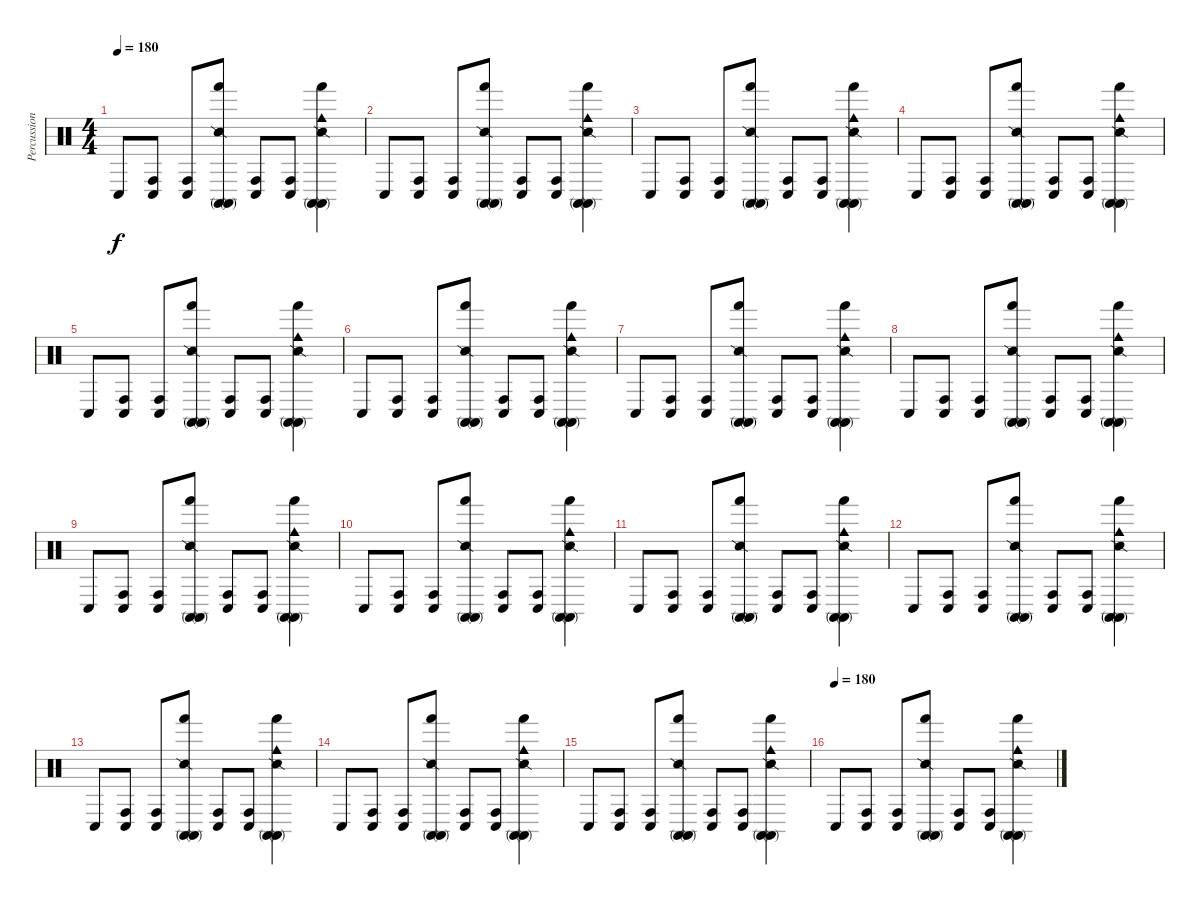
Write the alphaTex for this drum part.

\track ("Percussion" "Percussion") {instrument percussion}
\staff {score}
\articulation defaults
\ts (4 4)
\tempo 180
\clef neutral
\ks c "Conga low (hit)".8{dy f}
("Conga high (hit)" "Conga low (hit)").8 ("Conga high (hit)" "Conga low (hit)").8 ("Snare (side stick) 2" "Hand (hit)" "Conga high (mute)" "Conga high (mute)").8 ("Conga high (hit)" "Conga low (hit)").8 ("Conga high (hit)" "Conga low (hit)").8 ("Snare (side stick) 2" "Hand (hit)" "Cowbell medium (hit)" "Conga high (mute)" "Conga high (mute)").4 |
"Conga low (hit)".8 ("Conga high (hit)" "Conga low (hit)").8 ("Conga high (hit)" "Conga low (hit)").8 ("Snare (side stick) 2" "Hand (hit)" "Conga high (mute)" "Conga high (mute)").8 ("Conga high (hit)" "Conga low (hit)").8 ("Conga high (hit)" "Conga low (hit)").8 ("Snare (side stick) 2" "Hand (hit)" "Cowbell medium (hit)" "Conga high (mute)" "Conga high (mute)").4 |
"Conga low (hit)".8 ("Conga high (hit)" "Conga low (hit)").8 ("Conga high (hit)" "Conga low (hit)").8 ("Snare (side stick) 2" "Hand (hit)" "Conga high (mute)" "Conga high (mute)").8 ("Conga high (hit)" "Conga low (hit)").8 ("Conga high (hit)" "Conga low (hit)").8 ("Snare (side stick) 2" "Hand (hit)" "Cowbell medium (hit)" "Conga high (mute)" "Conga high (mute)").4 |
"Conga low (hit)".8 ("Conga high (hit)" "Conga low (hit)").8 ("Conga high (hit)" "Conga low (hit)").8 ("Snare (side stick) 2" "Hand (hit)" "Conga high (mute)" "Conga high (mute)").8 ("Conga high (hit)" "Conga low (hit)").8 ("Conga high (hit)" "Conga low (hit)").8 ("Snare (side stick) 2" "Hand (hit)" "Cowbell medium (hit)" "Conga high (mute)" "Conga high (mute)").4 |
"Conga low (hit)".8 ("Conga high (hit)" "Conga low (hit)").8 ("Conga high (hit)" "Conga low (hit)").8 ("Snare (side stick) 2" "Hand (hit)" "Conga high (mute)" "Conga high (mute)").8 ("Conga high (hit)" "Conga low (hit)").8 ("Conga high (hit)" "Conga low (hit)").8 ("Snare (side stick) 2" "Hand (hit)" "Cowbell medium (hit)" "Conga high (mute)" "Conga high (mute)").4 |
"Conga low (hit)".8 ("Conga high (hit)" "Conga low (hit)").8 ("Conga high (hit)" "Conga low (hit)").8 ("Snare (side stick) 2" "Hand (hit)" "Conga high (mute)" "Conga high (mute)").8 ("Conga high (hit)" "Conga low (hit)").8 ("Conga high (hit)" "Conga low (hit)").8 ("Snare (side stick) 2" "Hand (hit)" "Cowbell medium (hit)" "Conga high (mute)" "Conga high (mute)").4 |
"Conga low (hit)".8 ("Conga high (hit)" "Conga low (hit)").8 ("Conga high (hit)" "Conga low (hit)").8 ("Snare (side stick) 2" "Hand (hit)" "Conga high (mute)" "Conga high (mute)").8 ("Conga high (hit)" "Conga low (hit)").8 ("Conga high (hit)" "Conga low (hit)").8 ("Snare (side stick) 2" "Hand (hit)" "Cowbell medium (hit)" "Conga high (mute)" "Conga high (mute)").4 |
"Conga low (hit)".8 ("Conga high (hit)" "Conga low (hit)").8 ("Conga high (hit)" "Conga low (hit)").8 ("Snare (side stick) 2" "Hand (hit)" "Conga high (mute)" "Conga high (mute)").8 ("Conga high (hit)" "Conga low (hit)").8 ("Conga high (hit)" "Conga low (hit)").8 ("Snare (side stick) 2" "Hand (hit)" "Cowbell medium (hit)" "Conga high (mute)" "Conga high (mute)").4 |
"Conga low (hit)".8 ("Conga high (hit)" "Conga low (hit)").8 ("Conga high (hit)" "Conga low (hit)").8 ("Snare (side stick) 2" "Hand (hit)" "Conga high (mute)" "Conga high (mute)").8 ("Conga high (hit)" "Conga low (hit)").8 ("Conga high (hit)" "Conga low (hit)").8 ("Snare (side stick) 2" "Hand (hit)" "Cowbell medium (hit)" "Conga high (mute)" "Conga high (mute)").4 |
"Conga low (hit)".8 ("Conga high (hit)" "Conga low (hit)").8 ("Conga high (hit)" "Conga low (hit)").8 ("Snare (side stick) 2" "Hand (hit)" "Conga high (mute)" "Conga high (mute)").8 ("Conga high (hit)" "Conga low (hit)").8 ("Conga high (hit)" "Conga low (hit)").8 ("Snare (side stick) 2" "Hand (hit)" "Cowbell medium (hit)" "Conga high (mute)" "Conga high (mute)").4 |
"Conga low (hit)".8 ("Conga high (hit)" "Conga low (hit)").8 ("Conga high (hit)" "Conga low (hit)").8 ("Snare (side stick) 2" "Hand (hit)" "Conga high (mute)" "Conga high (mute)").8 ("Conga high (hit)" "Conga low (hit)").8 ("Conga high (hit)" "Conga low (hit)").8 ("Snare (side stick) 2" "Hand (hit)" "Cowbell medium (hit)" "Conga high (mute)" "Conga high (mute)").4 |
"Conga low (hit)".8 ("Conga high (hit)" "Conga low (hit)").8 ("Conga high (hit)" "Conga low (hit)").8 ("Snare (side stick) 2" "Hand (hit)" "Conga high (mute)" "Conga high (mute)").8 ("Conga high (hit)" "Conga low (hit)").8 ("Conga high (hit)" "Conga low (hit)").8 ("Snare (side stick) 2" "Hand (hit)" "Cowbell medium (hit)" "Conga high (mute)" "Conga high (mute)").4 |
"Conga low (hit)".8 ("Conga high (hit)" "Conga low (hit)").8 ("Conga high (hit)" "Conga low (hit)").8 ("Snare (side stick) 2" "Hand (hit)" "Conga high (mute)" "Conga high (mute)").8 ("Conga high (hit)" "Conga low (hit)").8 ("Conga high (hit)" "Conga low (hit)").8 ("Snare (side stick) 2" "Hand (hit)" "Cowbell medium (hit)" "Conga high (mute)" "Conga high (mute)").4 |
"Conga low (hit)".8 ("Conga high (hit)" "Conga low (hit)").8 ("Conga high (hit)" "Conga low (hit)").8 ("Snare (side stick) 2" "Hand (hit)" "Conga high (mute)" "Conga high (mute)").8 ("Conga high (hit)" "Conga low (hit)").8 ("Conga high (hit)" "Conga low (hit)").8 ("Snare (side stick) 2" "Hand (hit)" "Cowbell medium (hit)" "Conga high (mute)" "Conga high (mute)").4 |
"Conga low (hit)".8 ("Conga high (hit)" "Conga low (hit)").8 ("Conga high (hit)" "Conga low (hit)").8 ("Snare (side stick) 2" "Hand (hit)" "Conga high (mute)" "Conga high (mute)").8 ("Conga high (hit)" "Conga low (hit)").8 ("Conga high (hit)" "Conga low (hit)").8 ("Snare (side stick) 2" "Hand (hit)" "Cowbell medium (hit)" "Conga high (mute)" "Conga high (mute)").4 |
\tempo (180)
"Conga low (hit)".8 ("Conga high (hit)" "Conga low (hit)").8 ("Conga high (hit)" "Conga low (hit)").8 ("Snare (side stick) 2" "Hand (hit)" "Conga high (mute)" "Conga high (mute)").8 ("Conga high (hit)" "Conga low (hit)").8 ("Conga high (hit)" "Conga low (hit)").8 ("Snare (side stick) 2" "Hand (hit)" "Cowbell medium (hit)" "Conga high (mute)" "Conga high (mute)").4
